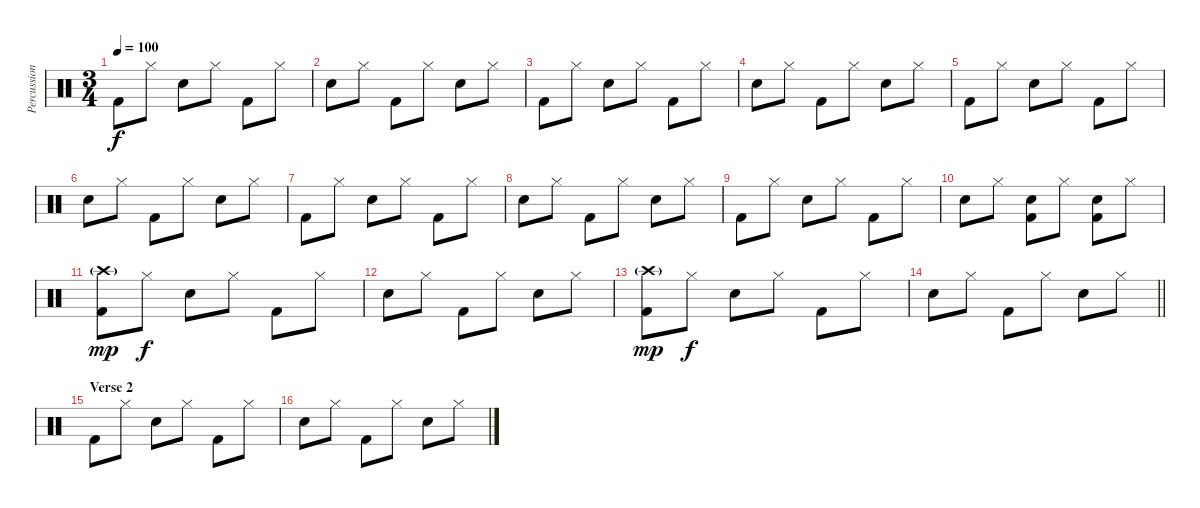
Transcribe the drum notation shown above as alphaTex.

\track ("Percussion" "Percussion") {instrument percussion}
\staff {score}
\articulation defaults
\ts (3 4)
\tempo 100
\clef neutral
\ks c "Kick (hit) 2".8{dy f} "Hi-Hat (closed)".8 "Snare (hit) 2".8 "Hi-Hat (closed)".8 "Kick (hit) 2".8 "Hi-Hat (closed)".8
|
"Snare (hit) 2".8 "Hi-Hat (closed)".8 "Kick (hit) 2".8 "Hi-Hat (closed)".8 "Snare (hit) 2".8 "Hi-Hat (closed)".8 |
"Kick (hit) 2".8 "Hi-Hat (closed)".8 "Snare (hit) 2".8 "Hi-Hat (closed)".8 "Kick (hit) 2".8 "Hi-Hat (closed)".8 |
"Snare (hit) 2".8 "Hi-Hat (closed)".8 "Kick (hit) 2".8 "Hi-Hat (closed)".8 "Snare (hit) 2".8 "Hi-Hat (closed)".8 |
"Kick (hit) 2".8 "Hi-Hat (closed)".8 "Snare (hit) 2".8 "Hi-Hat (closed)".8 "Kick (hit) 2".8 "Hi-Hat (closed)".8 |
"Snare (hit) 2".8 "Hi-Hat (closed)".8 "Kick (hit) 2".8 "Hi-Hat (closed)".8 "Snare (hit) 2".8 "Hi-Hat (closed)".8 |
"Kick (hit) 2".8 "Hi-Hat (closed)".8 "Snare (hit) 2".8 "Hi-Hat (closed)".8 "Kick (hit) 2".8 "Hi-Hat (closed)".8 |
"Snare (hit) 2".8 "Hi-Hat (closed)".8 "Kick (hit) 2".8 "Hi-Hat (closed)".8 "Snare (hit) 2".8 "Hi-Hat (closed)".8 |
"Kick (hit) 2".8 "Hi-Hat (closed)".8 "Snare (hit) 2".8 "Hi-Hat (closed)".8 "Kick (hit) 2".8 "Hi-Hat (closed)".8 |
"Snare (hit) 2".8 "Hi-Hat (closed)".8 ("Snare (hit) 2" "Kick (hit) 2").8 "Hi-Hat (closed)".8 ("Snare (hit) 2" "Kick (hit) 2").8 "Hi-Hat (closed)".8 |
("Crash high (hit)"{g} "Kick (hit) 2").8{dy mp} "Hi-Hat (closed)".8{dy f} "Snare (hit) 2".8 "Hi-Hat (closed)".8 "Kick (hit) 2".8 "Hi-Hat (closed)".8 |
"Snare (hit) 2".8 "Hi-Hat (closed)".8 "Kick (hit) 2".8 "Hi-Hat (closed)".8 "Snare (hit) 2".8 "Hi-Hat (closed)".8 |
("Crash high (hit)"{g} "Kick (hit) 2").8{dy mp} "Hi-Hat (closed)".8{dy f} "Snare (hit) 2".8 "Hi-Hat (closed)".8 "Kick (hit) 2".8 "Hi-Hat (closed)".8 |
\barLineRight lightlight "Snare (hit) 2".8 "Hi-Hat (closed)".8 "Kick (hit) 2".8 "Hi-Hat (closed)".8 "Snare (hit) 2".8 "Hi-Hat (closed)".8
|
\section ("" "Verse 2")
"Kick (hit) 2".8 "Hi-Hat (closed)".8 "Snare (hit) 2".8 "Hi-Hat (closed)".8 "Kick (hit) 2".8 "Hi-Hat (closed)".8 |
"Snare (hit) 2".8 "Hi-Hat (closed)".8 "Kick (hit) 2".8 "Hi-Hat (closed)".8 "Snare (hit) 2".8 "Hi-Hat (closed)".8
